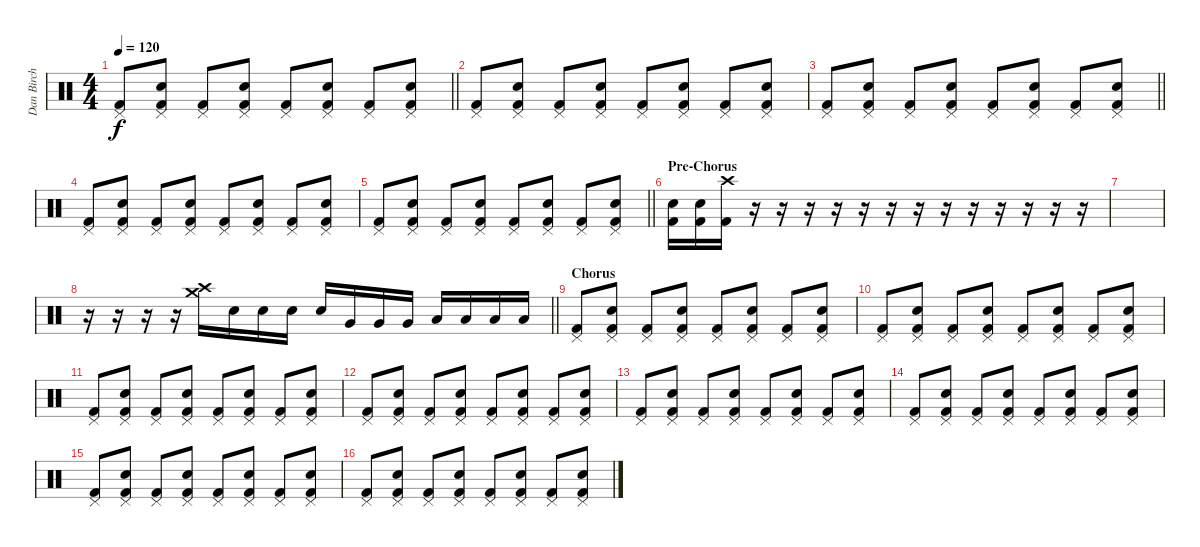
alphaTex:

\track ("Dan Birch" "Dan Birch") {instrument percussion}
\staff {score}
\articulation defaults
\ts (4 4)
\tempo 120
\clef neutral
\barLineRight lightlight
\ks c
("Pedal Hi-Hat (hit)" "Kick (hit) 2").8{dy f} ("Pedal Hi-Hat (hit)" "Snare (hit) 2" "Kick (hit) 2").8 ("Pedal Hi-Hat (hit)" "Kick (hit) 2").8 ("Pedal Hi-Hat (hit)" "Snare (hit) 2" "Kick (hit) 2").8 ("Pedal Hi-Hat (hit)" "Kick (hit) 2").8 ("Pedal Hi-Hat (hit)" "Snare (hit) 2" "Kick (hit) 2").8 ("Pedal Hi-Hat (hit)" "Kick (hit) 2").8 ("Pedal Hi-Hat (hit)" "Snare (hit) 2" "Kick (hit) 2").8 |
("Pedal Hi-Hat (hit)" "Kick (hit) 2").8 ("Pedal Hi-Hat (hit)" "Snare (hit) 2" "Kick (hit) 2").8 ("Pedal Hi-Hat (hit)" "Kick (hit) 2").8 ("Pedal Hi-Hat (hit)" "Snare (hit) 2" "Kick (hit) 2").8 ("Pedal Hi-Hat (hit)" "Kick (hit) 2").8 ("Pedal Hi-Hat (hit)" "Snare (hit) 2" "Kick (hit) 2").8 ("Pedal Hi-Hat (hit)" "Kick (hit) 2").8 ("Pedal Hi-Hat (hit)" "Snare (hit) 2" "Kick (hit) 2").8 |
\barLineRight lightlight
("Pedal Hi-Hat (hit)" "Kick (hit) 2").8 ("Pedal Hi-Hat (hit)" "Snare (hit) 2" "Kick (hit) 2").8 ("Pedal Hi-Hat (hit)" "Kick (hit) 2").8 ("Pedal Hi-Hat (hit)" "Snare (hit) 2" "Kick (hit) 2").8 ("Pedal Hi-Hat (hit)" "Kick (hit) 2").8 ("Pedal Hi-Hat (hit)" "Snare (hit) 2" "Kick (hit) 2").8 ("Pedal Hi-Hat (hit)" "Kick (hit) 2").8 ("Pedal Hi-Hat (hit)" "Snare (hit) 2" "Kick (hit) 2").8 |
("Pedal Hi-Hat (hit)" "Kick (hit) 2").8 ("Pedal Hi-Hat (hit)" "Snare (hit) 2" "Kick (hit) 2").8 ("Pedal Hi-Hat (hit)" "Kick (hit) 2").8 ("Pedal Hi-Hat (hit)" "Snare (hit) 2" "Kick (hit) 2").8 ("Pedal Hi-Hat (hit)" "Kick (hit) 2").8 ("Pedal Hi-Hat (hit)" "Snare (hit) 2" "Kick (hit) 2").8 ("Pedal Hi-Hat (hit)" "Kick (hit) 2").8 ("Pedal Hi-Hat (hit)" "Snare (hit) 2" "Kick (hit) 2").8 |
\barLineRight lightlight
("Pedal Hi-Hat (hit)" "Kick (hit) 2").8 ("Pedal Hi-Hat (hit)" "Snare (hit) 2" "Kick (hit) 2").8 ("Pedal Hi-Hat (hit)" "Kick (hit) 2").8 ("Pedal Hi-Hat (hit)" "Snare (hit) 2" "Kick (hit) 2").8 ("Pedal Hi-Hat (hit)" "Kick (hit) 2").8 ("Pedal Hi-Hat (hit)" "Snare (hit) 2" "Kick (hit) 2").8 ("Pedal Hi-Hat (hit)" "Kick (hit) 2").8 ("Pedal Hi-Hat (hit)" "Snare (hit) 2" "Kick (hit) 2").8 |
\section ("" "Pre-Chorus")
("Snare (hit) 2" "Kick (hit) 2").16 ("Snare (hit) 2" "Kick (hit) 2").16 ("Crash high (hit)" "Kick (hit) 2").16 r.16 r.16 r.16 r.16 r.16 r.16 r.16 r.16 r.16 r.16 r.16 r.16 r.16 |
|
\barLineRight lightlight
r.16 r.16 r.16 r.16 ("Crash high (hit)" "Crash medium (hit)").16 "Snare (hit) 2".16 "Snare (hit) 2".16 "Snare (hit) 2".16 "Snare (hit) 2".16 "Very Low Tom (hit)".16 "Very Low Tom (hit)".16 "Very Low Tom (hit)".16 "Low Tom (hit)".16 "Low Tom (hit)".16 "Low Tom (hit)".16 "Low Floor Tom (hit)".16 |
\section ("" "Chorus")
("Pedal Hi-Hat (hit)" "Kick (hit) 2").8 ("Pedal Hi-Hat (hit)" "Snare (hit) 2" "Kick (hit) 2").8 ("Pedal Hi-Hat (hit)" "Kick (hit) 2").8 ("Pedal Hi-Hat (hit)" "Snare (hit) 2" "Kick (hit) 2").8 ("Pedal Hi-Hat (hit)" "Kick (hit) 2").8 ("Pedal Hi-Hat (hit)" "Snare (hit) 2" "Kick (hit) 2").8 ("Pedal Hi-Hat (hit)" "Kick (hit) 2").8 ("Pedal Hi-Hat (hit)" "Snare (hit) 2" "Kick (hit) 2").8 |
("Pedal Hi-Hat (hit)" "Kick (hit) 2").8 ("Pedal Hi-Hat (hit)" "Snare (hit) 2" "Kick (hit) 2").8 ("Pedal Hi-Hat (hit)" "Kick (hit) 2").8 ("Pedal Hi-Hat (hit)" "Snare (hit) 2" "Kick (hit) 2").8 ("Pedal Hi-Hat (hit)" "Kick (hit) 2").8 ("Pedal Hi-Hat (hit)" "Snare (hit) 2" "Kick (hit) 2").8 ("Pedal Hi-Hat (hit)" "Kick (hit) 2").8 ("Pedal Hi-Hat (hit)" "Snare (hit) 2" "Kick (hit) 2").8 |
("Pedal Hi-Hat (hit)" "Kick (hit) 2").8 ("Pedal Hi-Hat (hit)" "Snare (hit) 2" "Kick (hit) 2").8 ("Pedal Hi-Hat (hit)" "Kick (hit) 2").8 ("Pedal Hi-Hat (hit)" "Snare (hit) 2" "Kick (hit) 2").8 ("Pedal Hi-Hat (hit)" "Kick (hit) 2").8 ("Pedal Hi-Hat (hit)" "Snare (hit) 2" "Kick (hit) 2").8 ("Pedal Hi-Hat (hit)" "Kick (hit) 2").8 ("Pedal Hi-Hat (hit)" "Snare (hit) 2" "Kick (hit) 2").8 |
("Pedal Hi-Hat (hit)" "Kick (hit) 2").8 ("Pedal Hi-Hat (hit)" "Snare (hit) 2" "Kick (hit) 2").8 ("Pedal Hi-Hat (hit)" "Kick (hit) 2").8 ("Pedal Hi-Hat (hit)" "Snare (hit) 2" "Kick (hit) 2").8 ("Pedal Hi-Hat (hit)" "Kick (hit) 2").8 ("Pedal Hi-Hat (hit)" "Snare (hit) 2" "Kick (hit) 2").8 ("Pedal Hi-Hat (hit)" "Kick (hit) 2").8 ("Pedal Hi-Hat (hit)" "Snare (hit) 2" "Kick (hit) 2").8 |
("Pedal Hi-Hat (hit)" "Kick (hit) 2").8 ("Pedal Hi-Hat (hit)" "Snare (hit) 2" "Kick (hit) 2").8 ("Pedal Hi-Hat (hit)" "Kick (hit) 2").8 ("Pedal Hi-Hat (hit)" "Snare (hit) 2" "Kick (hit) 2").8 ("Pedal Hi-Hat (hit)" "Kick (hit) 2").8 ("Pedal Hi-Hat (hit)" "Snare (hit) 2" "Kick (hit) 2").8 ("Pedal Hi-Hat (hit)" "Kick (hit) 2").8 ("Pedal Hi-Hat (hit)" "Snare (hit) 2" "Kick (hit) 2").8 |
("Pedal Hi-Hat (hit)" "Kick (hit) 2").8 ("Pedal Hi-Hat (hit)" "Snare (hit) 2" "Kick (hit) 2").8 ("Pedal Hi-Hat (hit)" "Kick (hit) 2").8 ("Pedal Hi-Hat (hit)" "Snare (hit) 2" "Kick (hit) 2").8 ("Pedal Hi-Hat (hit)" "Kick (hit) 2").8 ("Pedal Hi-Hat (hit)" "Snare (hit) 2" "Kick (hit) 2").8 ("Pedal Hi-Hat (hit)" "Kick (hit) 2").8 ("Pedal Hi-Hat (hit)" "Snare (hit) 2" "Kick (hit) 2").8 |
("Pedal Hi-Hat (hit)" "Kick (hit) 2").8 ("Pedal Hi-Hat (hit)" "Snare (hit) 2" "Kick (hit) 2").8 ("Pedal Hi-Hat (hit)" "Kick (hit) 2").8 ("Pedal Hi-Hat (hit)" "Snare (hit) 2" "Kick (hit) 2").8 ("Pedal Hi-Hat (hit)" "Kick (hit) 2").8 ("Pedal Hi-Hat (hit)" "Snare (hit) 2" "Kick (hit) 2").8 ("Pedal Hi-Hat (hit)" "Kick (hit) 2").8 ("Pedal Hi-Hat (hit)" "Snare (hit) 2" "Kick (hit) 2").8 |
("Pedal Hi-Hat (hit)" "Kick (hit) 2").8 ("Pedal Hi-Hat (hit)" "Snare (hit) 2" "Kick (hit) 2").8 ("Pedal Hi-Hat (hit)" "Kick (hit) 2").8 ("Pedal Hi-Hat (hit)" "Snare (hit) 2" "Kick (hit) 2").8 ("Pedal Hi-Hat (hit)" "Kick (hit) 2").8 ("Pedal Hi-Hat (hit)" "Snare (hit) 2" "Kick (hit) 2").8 ("Pedal Hi-Hat (hit)" "Kick (hit) 2").8 ("Pedal Hi-Hat (hit)" "Snare (hit) 2" "Kick (hit) 2").8
